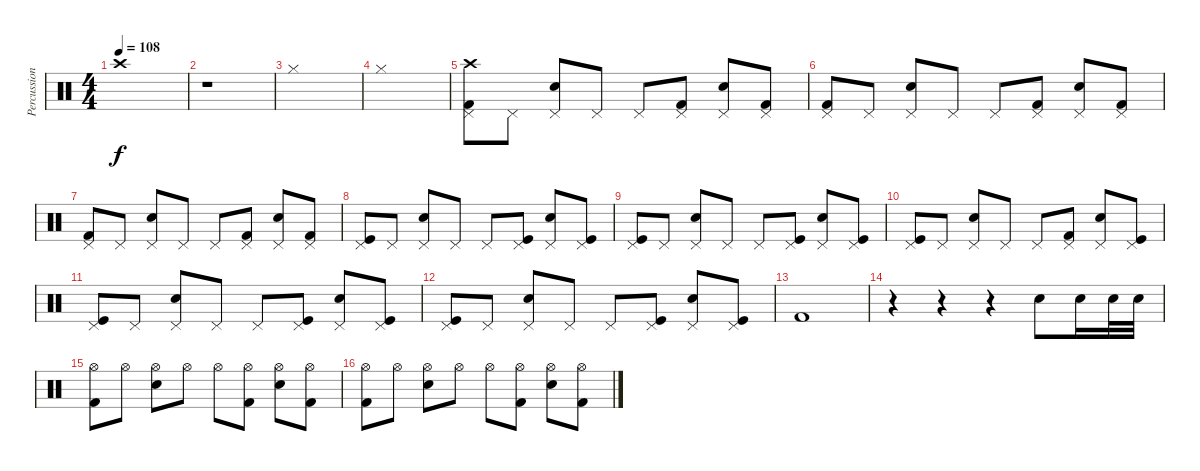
\track ("Percussion" "Percussion") {instrument percussion}
\staff {score}
\articulation defaults
\ts (4 4)
\tempo 108
\clef neutral
\ks c "Crash high (hit)".1{dy f}
|
r.1 |
"Hi-Hat (closed)".1 |
"Hi-Hat (closed)".1 |
("Kick (hit) 2" "Pedal Hi-Hat (hit)" "Crash high (hit)").8 "Pedal Hi-Hat (hit)".8 ("Pedal Hi-Hat (hit)" "Electric Snare (hit)").8 "Pedal Hi-Hat (hit)".8 "Pedal Hi-Hat (hit)".8 ("Pedal Hi-Hat (hit)" "Kick (hit) 2").8 ("Pedal Hi-Hat (hit)" "Electric Snare (hit)").8 ("Pedal Hi-Hat (hit)" "Kick (hit) 2").8 |
("Kick (hit) 2" "Pedal Hi-Hat (hit)").8 "Pedal Hi-Hat (hit)".8 ("Pedal Hi-Hat (hit)" "Electric Snare (hit)").8 "Pedal Hi-Hat (hit)".8 "Pedal Hi-Hat (hit)".8 ("Pedal Hi-Hat (hit)" "Kick (hit) 2").8 ("Pedal Hi-Hat (hit)" "Electric Snare (hit)").8 ("Pedal Hi-Hat (hit)" "Kick (hit) 2").8 |
("Kick (hit) 2" "Pedal Hi-Hat (hit)").8 "Pedal Hi-Hat (hit)".8 ("Pedal Hi-Hat (hit)" "Electric Snare (hit)").8 "Pedal Hi-Hat (hit)".8 "Pedal Hi-Hat (hit)".8 ("Pedal Hi-Hat (hit)" "Kick (hit) 2").8 ("Pedal Hi-Hat (hit)" "Electric Snare (hit)").8 ("Pedal Hi-Hat (hit)" "Kick (hit) 2").8 |
("Kick (hit)" "Pedal Hi-Hat (hit)").8 "Pedal Hi-Hat (hit)".8 ("Pedal Hi-Hat (hit)" "Electric Snare (hit)").8 "Pedal Hi-Hat (hit)".8 "Pedal Hi-Hat (hit)".8 ("Pedal Hi-Hat (hit)" "Kick (hit)").8 ("Pedal Hi-Hat (hit)" "Electric Snare (hit)").8 ("Pedal Hi-Hat (hit)" "Kick (hit)").8 |
("Kick (hit)" "Pedal Hi-Hat (hit)").8 "Pedal Hi-Hat (hit)".8 ("Pedal Hi-Hat (hit)" "Electric Snare (hit)").8 "Pedal Hi-Hat (hit)".8 "Pedal Hi-Hat (hit)".8 ("Pedal Hi-Hat (hit)" "Kick (hit)").8 ("Pedal Hi-Hat (hit)" "Electric Snare (hit)").8 ("Pedal Hi-Hat (hit)" "Kick (hit)").8 |
("Kick (hit)" "Pedal Hi-Hat (hit)").8 "Pedal Hi-Hat (hit)".8 ("Pedal Hi-Hat (hit)" "Electric Snare (hit)").8 "Pedal Hi-Hat (hit)".8 "Pedal Hi-Hat (hit)".8 ("Pedal Hi-Hat (hit)" "Kick (hit) 2").8 ("Pedal Hi-Hat (hit)" "Electric Snare (hit)").8 ("Pedal Hi-Hat (hit)" "Kick (hit)").8 |
("Kick (hit)" "Pedal Hi-Hat (hit)").8 "Pedal Hi-Hat (hit)".8 ("Pedal Hi-Hat (hit)" "Electric Snare (hit)").8 "Pedal Hi-Hat (hit)".8 "Pedal Hi-Hat (hit)".8 ("Pedal Hi-Hat (hit)" "Kick (hit)").8 ("Pedal Hi-Hat (hit)" "Electric Snare (hit)").8 ("Pedal Hi-Hat (hit)" "Kick (hit)").8 |
("Kick (hit)" "Pedal Hi-Hat (hit)").8 "Pedal Hi-Hat (hit)".8 ("Pedal Hi-Hat (hit)" "Electric Snare (hit)").8 "Pedal Hi-Hat (hit)".8 "Pedal Hi-Hat (hit)".8 ("Pedal Hi-Hat (hit)" "Kick (hit)").8 ("Pedal Hi-Hat (hit)" "Electric Snare (hit)").8 ("Pedal Hi-Hat (hit)" "Kick (hit)").8 |
"Kick (hit) 2".1 |
r.4 r.4 r.4 "Electric Snare (hit)".8 "Electric Snare (hit)".16 "Electric Snare (hit)".32 "Electric Snare (hit)".32 |
("Kick (hit) 2" "Hi-Hat (open)").8 "Hi-Hat (open)".8 ("Hi-Hat (open)" "Electric Snare (hit)").8 "Hi-Hat (open)".8 "Hi-Hat (open)".8 ("Hi-Hat (open)" "Kick (hit) 2").8 ("Hi-Hat (open)" "Electric Snare (hit)").8 ("Hi-Hat (open)" "Kick (hit) 2").8 |
("Kick (hit) 2" "Hi-Hat (open)").8 "Hi-Hat (open)".8 ("Hi-Hat (open)" "Electric Snare (hit)").8 "Hi-Hat (open)".8 "Hi-Hat (open)".8 ("Hi-Hat (open)" "Kick (hit) 2").8 ("Hi-Hat (open)" "Electric Snare (hit)").8 ("Hi-Hat (open)" "Kick (hit) 2").8
